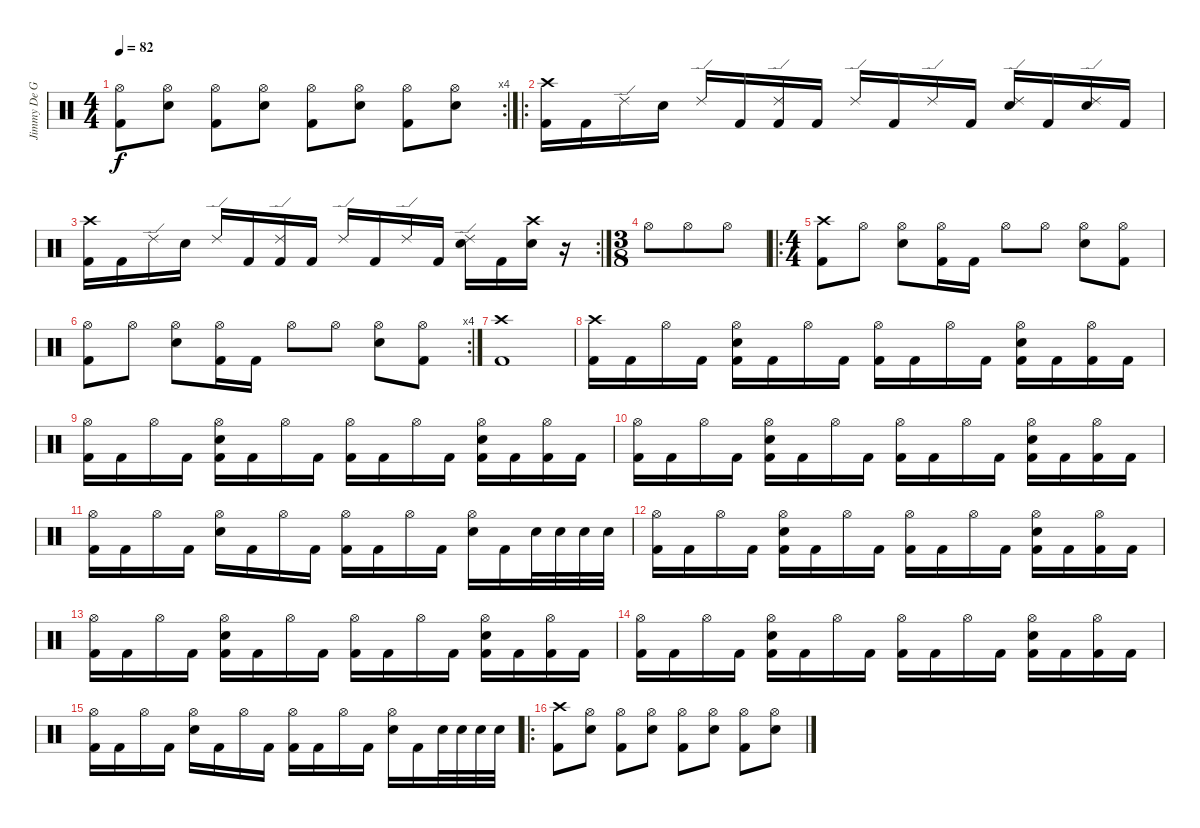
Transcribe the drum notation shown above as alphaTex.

\track ("Jimmy De Grasso" "Jimmy De G") {instrument percussion}
\staff {score}
\articulation defaults
\rc 4
\ts (4 4)
\tempo 82
\clef neutral
\ks c
("Hi-Hat (open)" "Kick (hit) 2").8{dy f} ("Hi-Hat (open)" "Snare (hit) 2").8 ("Hi-Hat (open)" "Kick (hit) 2").8 ("Hi-Hat (open)" "Snare (hit) 2").8 ("Hi-Hat (open)" "Kick (hit) 2").8 ("Hi-Hat (open)" "Snare (hit) 2").8 ("Hi-Hat (open)" "Kick (hit) 2").8 ("Hi-Hat (open)" "Snare (hit) 2").8 |
\ro
("Crash high (hit)" "Kick (hit) 2").16 "Kick (hit) 2".16 "Ride (edge) 2".16 "Snare (hit) 2".16 "Ride (edge) 2".16 "Kick (hit) 2".16 ("Ride (edge) 2" "Kick (hit) 2").16 "Kick (hit) 2".16 "Ride (edge) 2".16 "Kick (hit) 2".16 "Ride (edge) 2".16 "Kick (hit) 2".16 ("Ride (edge) 2" "Snare (hit) 2").16 "Kick (hit) 2".16 ("Ride (edge) 2" "Snare (hit) 2").16 "Kick (hit) 2".16 |
\rc 2
("Crash high (hit)" "Kick (hit) 2").16 "Kick (hit) 2".16 "Ride (edge) 2".16 "Snare (hit) 2".16 "Ride (edge) 2".16 "Kick (hit) 2".16 ("Ride (edge) 2" "Kick (hit) 2").16 "Kick (hit) 2".16 "Ride (edge) 2".16 "Kick (hit) 2".16 "Ride (edge) 2".16 "Kick (hit) 2".16 ("Ride (edge) 2" "Snare (hit) 2").16 "Kick (hit) 2".16 ("Crash high (hit)" "Snare (hit) 2").16 r.16 |
\ts (3 8)
"Hi-Hat (open)".8 "Hi-Hat (open)".8 "Hi-Hat (open)".8 |
\ro
\ts (4 4)
("Crash high (hit)" "Kick (hit) 2").8 "Hi-Hat (open)".8 ("Hi-Hat (open)" "Snare (hit) 2").8 ("Hi-Hat (open)" "Kick (hit) 2").16 "Kick (hit) 2".16 "Hi-Hat (open)".8 "Hi-Hat (open)".8 ("Hi-Hat (open)" "Snare (hit) 2").8 ("Hi-Hat (open)" "Kick (hit) 2").8 |
\rc 4
("Hi-Hat (open)" "Kick (hit) 2").8 "Hi-Hat (open)".8 ("Hi-Hat (open)" "Snare (hit) 2").8 ("Hi-Hat (open)" "Kick (hit) 2").16 "Kick (hit) 2".16 "Hi-Hat (open)".8 "Hi-Hat (open)".8 ("Hi-Hat (open)" "Snare (hit) 2").8 ("Hi-Hat (open)" "Kick (hit) 2").8 |
("Crash high (hit)" "Kick (hit) 2").1 |
("Crash high (hit)" "Kick (hit) 2").16 "Kick (hit) 2".16 "Hi-Hat (open)".16 "Kick (hit) 2".16 ("Hi-Hat (open)" "Snare (hit) 2" "Kick (hit) 2").16 "Kick (hit) 2".16 "Hi-Hat (open)".16 "Kick (hit) 2".16 ("Hi-Hat (open)" "Kick (hit) 2").16 "Kick (hit) 2".16 "Hi-Hat (open)".16 "Kick (hit) 2".16 ("Hi-Hat (open)" "Snare (hit) 2" "Kick (hit) 2").16 "Kick (hit) 2".16 ("Hi-Hat (open)" "Kick (hit) 2").16 "Kick (hit) 2".16 |
("Hi-Hat (open)" "Kick (hit) 2").16 "Kick (hit) 2".16 "Hi-Hat (open)".16 "Kick (hit) 2".16 ("Hi-Hat (open)" "Snare (hit) 2" "Kick (hit) 2").16 "Kick (hit) 2".16 "Hi-Hat (open)".16 "Kick (hit) 2".16 ("Hi-Hat (open)" "Kick (hit) 2").16 "Kick (hit) 2".16 "Hi-Hat (open)".16 "Kick (hit) 2".16 ("Hi-Hat (open)" "Snare (hit) 2" "Kick (hit) 2").16 "Kick (hit) 2".16 ("Hi-Hat (open)" "Kick (hit) 2").16 "Kick (hit) 2".16 |
("Hi-Hat (open)" "Kick (hit) 2").16 "Kick (hit) 2".16 "Hi-Hat (open)".16 "Kick (hit) 2".16 ("Hi-Hat (open)" "Snare (hit) 2" "Kick (hit) 2").16 "Kick (hit) 2".16 "Hi-Hat (open)".16 "Kick (hit) 2".16 ("Hi-Hat (open)" "Kick (hit) 2").16 "Kick (hit) 2".16 "Hi-Hat (open)".16 "Kick (hit) 2".16 ("Hi-Hat (open)" "Snare (hit) 2" "Kick (hit) 2").16 "Kick (hit) 2".16 ("Hi-Hat (open)" "Kick (hit) 2").16 "Kick (hit) 2".16 |
("Hi-Hat (open)" "Kick (hit) 2").16 "Kick (hit) 2".16 "Hi-Hat (open)".16 "Kick (hit) 2".16 ("Hi-Hat (open)" "Snare (hit) 2").16 "Kick (hit) 2".16 "Hi-Hat (open)".16 "Kick (hit) 2".16 ("Hi-Hat (open)" "Kick (hit) 2").16 "Kick (hit) 2".16 "Hi-Hat (open)".16 "Kick (hit) 2".16 ("Hi-Hat (open)" "Snare (hit) 2").16 "Kick (hit) 2".16 "Snare (hit) 2".32 "Snare (hit) 2".32 "Snare (hit) 2".32 "Snare (hit) 2".32 |
("Hi-Hat (open)" "Kick (hit) 2").16 "Kick (hit) 2".16 "Hi-Hat (open)".16 "Kick (hit) 2".16 ("Hi-Hat (open)" "Snare (hit) 2" "Kick (hit) 2").16 "Kick (hit) 2".16 "Hi-Hat (open)".16 "Kick (hit) 2".16 ("Hi-Hat (open)" "Kick (hit) 2").16 "Kick (hit) 2".16 "Hi-Hat (open)".16 "Kick (hit) 2".16 ("Hi-Hat (open)" "Snare (hit) 2" "Kick (hit) 2").16 "Kick (hit) 2".16 ("Hi-Hat (open)" "Kick (hit) 2").16 "Kick (hit) 2".16 |
("Hi-Hat (open)" "Kick (hit) 2").16 "Kick (hit) 2".16 "Hi-Hat (open)".16 "Kick (hit) 2".16 ("Hi-Hat (open)" "Snare (hit) 2" "Kick (hit) 2").16 "Kick (hit) 2".16 "Hi-Hat (open)".16 "Kick (hit) 2".16 ("Hi-Hat (open)" "Kick (hit) 2").16 "Kick (hit) 2".16 "Hi-Hat (open)".16 "Kick (hit) 2".16 ("Hi-Hat (open)" "Snare (hit) 2" "Kick (hit) 2").16 "Kick (hit) 2".16 ("Hi-Hat (open)" "Kick (hit) 2").16 "Kick (hit) 2".16 |
("Hi-Hat (open)" "Kick (hit) 2").16 "Kick (hit) 2".16 "Hi-Hat (open)".16 "Kick (hit) 2".16 ("Hi-Hat (open)" "Snare (hit) 2" "Kick (hit) 2").16 "Kick (hit) 2".16 "Hi-Hat (open)".16 "Kick (hit) 2".16 ("Hi-Hat (open)" "Kick (hit) 2").16 "Kick (hit) 2".16 "Hi-Hat (open)".16 "Kick (hit) 2".16 ("Hi-Hat (open)" "Snare (hit) 2" "Kick (hit) 2").16 "Kick (hit) 2".16 ("Hi-Hat (open)" "Kick (hit) 2").16 "Kick (hit) 2".16 |
("Hi-Hat (open)" "Kick (hit) 2").16 "Kick (hit) 2".16 "Hi-Hat (open)".16 "Kick (hit) 2".16 ("Hi-Hat (open)" "Snare (hit) 2").16 "Kick (hit) 2".16 "Hi-Hat (open)".16 "Kick (hit) 2".16 ("Hi-Hat (open)" "Kick (hit) 2").16 "Kick (hit) 2".16 "Hi-Hat (open)".16 "Kick (hit) 2".16 ("Hi-Hat (open)" "Snare (hit) 2").16 "Kick (hit) 2".16 "Snare (hit) 2".32 "Snare (hit) 2".32 "Snare (hit) 2".32 "Snare (hit) 2".32 |
\ro
("Crash high (hit)" "Kick (hit) 2").8 ("Hi-Hat (open)" "Snare (hit) 2").8 ("Hi-Hat (open)" "Kick (hit) 2").8 ("Hi-Hat (open)" "Snare (hit) 2").8 ("Hi-Hat (open)" "Kick (hit) 2").8 ("Hi-Hat (open)" "Snare (hit) 2").8 ("Hi-Hat (open)" "Kick (hit) 2").8 ("Hi-Hat (open)" "Snare (hit) 2").8
